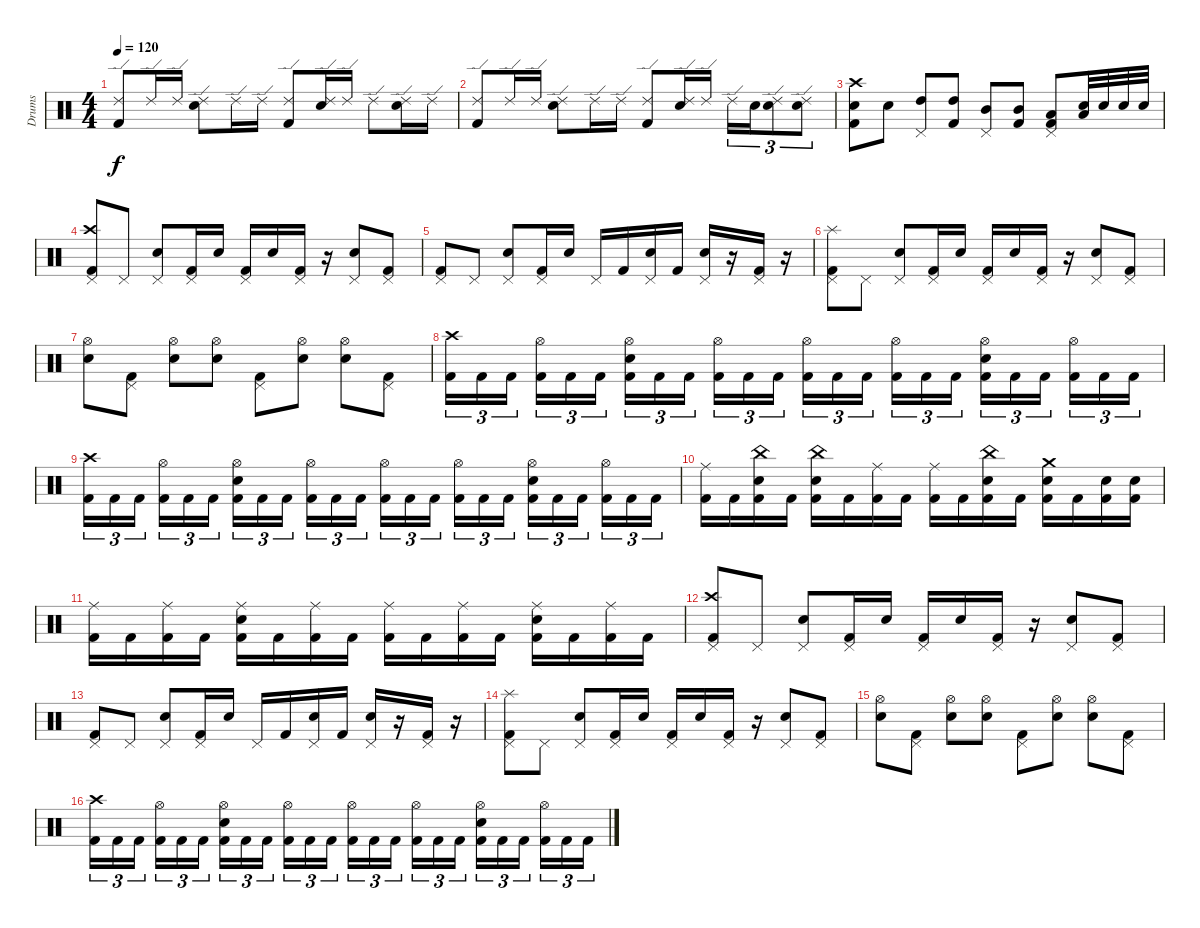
\track ("Drums" "Drums") {instrument percussion}
\staff {score}
\articulation defaults
\ts (4 4)
\tempo 120
\clef neutral
\ks c
("Ride (edge) 2" "Kick (hit) 2").8{dy f} "Ride (edge) 2".16 "Ride (edge) 2".16 ("Ride (edge) 2" "Electric Snare (hit)").8 "Ride (edge) 2".16 "Ride (edge) 2".16 ("Ride (edge) 2" "Kick (hit) 2").8 ("Ride (edge) 2" "Electric Snare (hit)").16 "Ride (edge) 2".16 "Ride (edge) 2".8 ("Ride (edge) 2" "Electric Snare (hit)").16 "Ride (edge) 2".16 |
("Ride (edge) 2" "Kick (hit) 2").8 "Ride (edge) 2".16 "Ride (edge) 2".16 ("Ride (edge) 2" "Electric Snare (hit)").8 "Ride (edge) 2".16 "Ride (edge) 2".16 ("Ride (edge) 2" "Kick (hit) 2").8 ("Ride (edge) 2" "Electric Snare (hit)").16 "Ride (edge) 2".16 "Ride (edge) 2".16{tu (3 2)} "Electric Snare (hit)".16{tu (3 2)} ("Ride (edge) 2" "Electric Snare (hit)").8{tu (3 2)} ("Ride (edge) 2" "Electric Snare (hit)").8{tu (3 2)} |
("Crash high (hit)" "Electric Snare (hit)" "Kick (hit) 2").8 "Electric Snare (hit)".8 ("Pedal Hi-Hat (hit)" "High Tom (hit)").8 ("High Tom (hit)" "Kick (hit) 2").8 ("Pedal Hi-Hat (hit)" "Mid Tom (hit)").8 ("Mid Tom (hit)" "Kick (hit) 2").8 ("Pedal Hi-Hat (hit)" "Low Tom (hit)" "Kick (hit) 2").8 ("Electric Snare (hit)" "Low Tom (hit)").32 "Electric Snare (hit)".32 "Electric Snare (hit)".32 "Electric Snare (hit)".32 |
("Crash high (hit)" "Pedal Hi-Hat (hit)" "Kick (hit) 2").8 "Pedal Hi-Hat (hit)".8 ("Pedal Hi-Hat (hit)" "Electric Snare (hit)").8 ("Pedal Hi-Hat (hit)" "Kick (hit) 2").16 "Electric Snare (hit)".16 ("Pedal Hi-Hat (hit)" "Kick (hit) 2").16 "Electric Snare (hit)".16 ("Pedal Hi-Hat (hit)" "Kick (hit) 2").16 r.16 ("Pedal Hi-Hat (hit)" "Electric Snare (hit)").8 ("Pedal Hi-Hat (hit)" "Kick (hit) 2").8 |
("Pedal Hi-Hat (hit)" "Kick (hit) 2").8 "Pedal Hi-Hat (hit)".8 ("Pedal Hi-Hat (hit)" "Electric Snare (hit)").8 ("Pedal Hi-Hat (hit)" "Kick (hit) 2").16 "Electric Snare (hit)".16 "Pedal Hi-Hat (hit)".16 "Kick (hit) 2".16 ("Pedal Hi-Hat (hit)" "Electric Snare (hit)").16 "Kick (hit) 2".16 ("Pedal Hi-Hat (hit)" "Electric Snare (hit)").16 r.16 ("Pedal Hi-Hat (hit)" "Kick (hit) 2").16 r.16 |
("Splash (hit)" "Pedal Hi-Hat (hit)" "Kick (hit) 2").8 "Pedal Hi-Hat (hit)".8 ("Pedal Hi-Hat (hit)" "Electric Snare (hit)").8 ("Pedal Hi-Hat (hit)" "Kick (hit) 2").16 "Electric Snare (hit)".16 ("Pedal Hi-Hat (hit)" "Kick (hit) 2").16 "Electric Snare (hit)".16 ("Pedal Hi-Hat (hit)" "Kick (hit) 2").16 r.16 ("Pedal Hi-Hat (hit)" "Electric Snare (hit)").8 ("Pedal Hi-Hat (hit)" "Kick (hit) 2").8 |
("Hi-Hat (open)" "Electric Snare (hit)").8 ("Pedal Hi-Hat (hit)" "Kick (hit) 2").8 ("Hi-Hat (open)" "Electric Snare (hit)").8 ("Hi-Hat (open)" "Electric Snare (hit)").8 ("Pedal Hi-Hat (hit)" "Kick (hit) 2").8 ("Hi-Hat (open)" "Electric Snare (hit)").8 ("Hi-Hat (open)" "Electric Snare (hit)").8 ("Pedal Hi-Hat (hit)" "Kick (hit) 2").8 |
("Crash high (hit)" "Kick (hit) 2").16{tu (3 2)} "Kick (hit) 2".16{tu (3 2)} "Kick (hit) 2".16{tu (3 2)} ("Hi-Hat (open)" "Kick (hit) 2").16{tu (3 2)} "Kick (hit) 2".16{tu (3 2)} "Kick (hit) 2".16{tu (3 2)} ("Hi-Hat (open)" "Electric Snare (hit)" "Kick (hit) 2").16{tu (3 2)} "Kick (hit) 2".16{tu (3 2)} "Kick (hit) 2".16{tu (3 2)} ("Hi-Hat (open)" "Kick (hit) 2").16{tu (3 2)} "Kick (hit) 2".16{tu (3 2)} "Kick (hit) 2".16{tu (3 2)} ("Hi-Hat (open)" "Kick (hit) 2").16{tu (3 2)} "Kick (hit) 2".16{tu (3 2)} "Kick (hit) 2".16{tu (3 2)} ("Hi-Hat (open)" "Kick (hit) 2").16{tu (3 2)} "Kick (hit) 2".16{tu (3 2)} "Kick (hit) 2".16{tu (3 2)} ("Hi-Hat (open)" "Electric Snare (hit)" "Kick (hit) 2").16{tu (3 2)} "Kick (hit) 2".16{tu (3 2)} "Kick (hit) 2".16{tu (3 2)} ("Hi-Hat (open)" "Kick (hit) 2").16{tu (3 2)} "Kick (hit) 2".16{tu (3 2)} "Kick (hit) 2".16{tu (3 2)} |
("Crash high (hit)" "Kick (hit) 2").16{tu (3 2)} "Kick (hit) 2".16{tu (3 2)} "Kick (hit) 2".16{tu (3 2)} ("Hi-Hat (open)" "Kick (hit) 2").16{tu (3 2)} "Kick (hit) 2".16{tu (3 2)} "Kick (hit) 2".16{tu (3 2)} ("Hi-Hat (open)" "Electric Snare (hit)" "Kick (hit) 2").16{tu (3 2)} "Kick (hit) 2".16{tu (3 2)} "Kick (hit) 2".16{tu (3 2)} ("Hi-Hat (open)" "Kick (hit) 2").16{tu (3 2)} "Kick (hit) 2".16{tu (3 2)} "Kick (hit) 2".16{tu (3 2)} ("Hi-Hat (open)" "Kick (hit) 2").16{tu (3 2)} "Kick (hit) 2".16{tu (3 2)} "Kick (hit) 2".16{tu (3 2)} ("Hi-Hat (open)" "Kick (hit) 2").16{tu (3 2)} "Kick (hit) 2".16{tu (3 2)} "Kick (hit) 2".16{tu (3 2)} ("Hi-Hat (open)" "Electric Snare (hit)" "Kick (hit) 2").16{tu (3 2)} "Kick (hit) 2".16{tu (3 2)} "Kick (hit) 2".16{tu (3 2)} ("Hi-Hat (open)" "Kick (hit) 2").16{tu (3 2)} "Kick (hit) 2".16{tu (3 2)} "Kick (hit) 2".16{tu (3 2)} |
("Ride (middle)" "Kick (hit) 2").16 "Kick (hit) 2".16 ("China (hit)" "Electric Snare (hit)" "Kick (hit) 2").16 "Kick (hit) 2".16 ("China (hit)" "Electric Snare (hit)" "Kick (hit) 2").16 "Kick (hit) 2".16 ("Ride (middle)" "Kick (hit) 2").16 "Kick (hit) 2".16 ("Ride (middle)" "Kick (hit) 2").16 "Kick (hit) 2".16 ("China (hit)" "Electric Snare (hit)" "Kick (hit) 2").16 "Kick (hit) 2".16 ("Crash medium (hit)" "Electric Snare (hit)" "Kick (hit) 2").16 "Kick (hit) 2".16 ("Electric Snare (hit)" "Kick (hit) 2").16 ("Electric Snare (hit)" "Kick (hit) 2").16 |
("Ride (middle)" "Kick (hit) 2").16 "Kick (hit) 2".16 ("Ride (middle)" "Kick (hit) 2").16 "Kick (hit) 2".16 ("Ride (middle)" "Electric Snare (hit)" "Kick (hit) 2").16 "Kick (hit) 2".16 ("Ride (middle)" "Kick (hit) 2").16 "Kick (hit) 2".16 ("Ride (middle)" "Kick (hit) 2").16 "Kick (hit) 2".16 ("Ride (middle)" "Kick (hit) 2").16 "Kick (hit) 2".16 ("Ride (middle)" "Electric Snare (hit)" "Kick (hit) 2").16 "Kick (hit) 2".16 ("Ride (middle)" "Kick (hit) 2").16 "Kick (hit) 2".16 |
("Crash high (hit)" "Pedal Hi-Hat (hit)" "Kick (hit) 2").8 "Pedal Hi-Hat (hit)".8 ("Pedal Hi-Hat (hit)" "Electric Snare (hit)").8 ("Pedal Hi-Hat (hit)" "Kick (hit) 2").16 "Electric Snare (hit)".16 ("Pedal Hi-Hat (hit)" "Kick (hit) 2").16 "Electric Snare (hit)".16 ("Pedal Hi-Hat (hit)" "Kick (hit) 2").16 r.16 ("Pedal Hi-Hat (hit)" "Electric Snare (hit)").8 ("Pedal Hi-Hat (hit)" "Kick (hit) 2").8 |
("Pedal Hi-Hat (hit)" "Kick (hit) 2").8 "Pedal Hi-Hat (hit)".8 ("Pedal Hi-Hat (hit)" "Electric Snare (hit)").8 ("Pedal Hi-Hat (hit)" "Kick (hit) 2").16 "Electric Snare (hit)".16 "Pedal Hi-Hat (hit)".16 "Kick (hit) 2".16 ("Pedal Hi-Hat (hit)" "Electric Snare (hit)").16 "Kick (hit) 2".16 ("Pedal Hi-Hat (hit)" "Electric Snare (hit)").16 r.16 ("Pedal Hi-Hat (hit)" "Kick (hit) 2").16 r.16 |
("Splash (hit)" "Pedal Hi-Hat (hit)" "Kick (hit) 2").8 "Pedal Hi-Hat (hit)".8 ("Pedal Hi-Hat (hit)" "Electric Snare (hit)").8 ("Pedal Hi-Hat (hit)" "Kick (hit) 2").16 "Electric Snare (hit)".16 ("Pedal Hi-Hat (hit)" "Kick (hit) 2").16 "Electric Snare (hit)".16 ("Pedal Hi-Hat (hit)" "Kick (hit) 2").16 r.16 ("Pedal Hi-Hat (hit)" "Electric Snare (hit)").8 ("Pedal Hi-Hat (hit)" "Kick (hit) 2").8 |
("Hi-Hat (open)" "Electric Snare (hit)").8 ("Pedal Hi-Hat (hit)" "Kick (hit) 2").8 ("Hi-Hat (open)" "Electric Snare (hit)").8 ("Hi-Hat (open)" "Electric Snare (hit)").8 ("Pedal Hi-Hat (hit)" "Kick (hit) 2").8 ("Hi-Hat (open)" "Electric Snare (hit)").8 ("Hi-Hat (open)" "Electric Snare (hit)").8 ("Pedal Hi-Hat (hit)" "Kick (hit) 2").8 |
("Crash high (hit)" "Kick (hit) 2").16{tu (3 2)} "Kick (hit) 2".16{tu (3 2)} "Kick (hit) 2".16{tu (3 2)} ("Hi-Hat (open)" "Kick (hit) 2").16{tu (3 2)} "Kick (hit) 2".16{tu (3 2)} "Kick (hit) 2".16{tu (3 2)} ("Hi-Hat (open)" "Electric Snare (hit)" "Kick (hit) 2").16{tu (3 2)} "Kick (hit) 2".16{tu (3 2)} "Kick (hit) 2".16{tu (3 2)} ("Hi-Hat (open)" "Kick (hit) 2").16{tu (3 2)} "Kick (hit) 2".16{tu (3 2)} "Kick (hit) 2".16{tu (3 2)} ("Hi-Hat (open)" "Kick (hit) 2").16{tu (3 2)} "Kick (hit) 2".16{tu (3 2)} "Kick (hit) 2".16{tu (3 2)} ("Hi-Hat (open)" "Kick (hit) 2").16{tu (3 2)} "Kick (hit) 2".16{tu (3 2)} "Kick (hit) 2".16{tu (3 2)} ("Hi-Hat (open)" "Electric Snare (hit)" "Kick (hit) 2").16{tu (3 2)} "Kick (hit) 2".16{tu (3 2)} "Kick (hit) 2".16{tu (3 2)} ("Hi-Hat (open)" "Kick (hit) 2").16{tu (3 2)} "Kick (hit) 2".16{tu (3 2)} "Kick (hit) 2".16{tu (3 2)}
